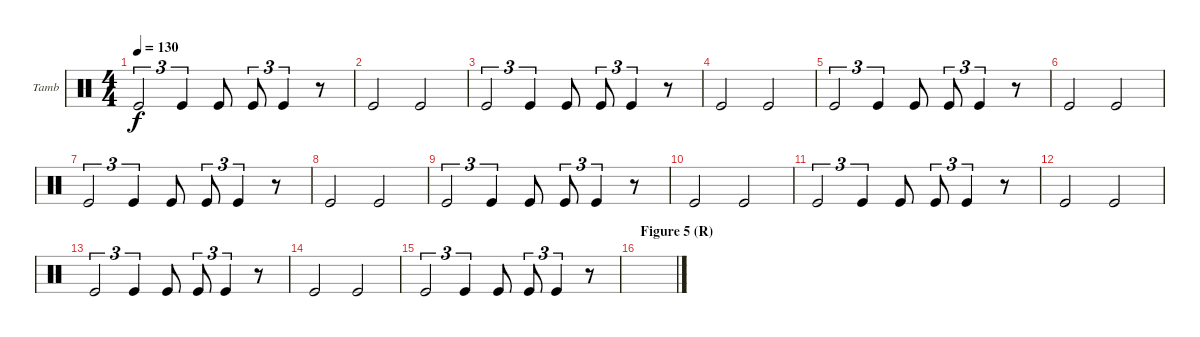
\defaultSystemsLayout 4
\bracketExtendMode groupsimilarinstruments
\firstSystemTrackNameOrientation horizontal
\otherSystemsTrackNameOrientation horizontal
\track ("Tambourine" "Tamb") {instrument percussion}
\staff {score}
\articulation defaults
\ts (4 4)
\tempo 130
\clef neutral
\scale
0.333333
\ks aminor "Kick (hit)".2{tu (3 2) dy f} "Kick (hit)".4{tu (3 2)} "Kick (hit)".8 "Kick (hit)".8{tu (3 2)} "Kick (hit)".4{tu (3 2)}
r.8 |
\scale
0.333333 "Kick (hit)".2 "Kick (hit)".2 |
\scale
0.333333 "Kick (hit)".2{tu (3 2)} "Kick (hit)".4{tu (3 2)} "Kick (hit)".8 "Kick (hit)".8{tu (3 2)} "Kick (hit)".4{tu (3 2)} r.8 |
\scale
0.333333 "Kick (hit)".2 "Kick (hit)".2 |
\scale
0.333333 "Kick (hit)".2{tu (3 2)} "Kick (hit)".4{tu (3 2)} "Kick (hit)".8 "Kick (hit)".8{tu (3 2)} "Kick (hit)".4{tu (3 2)} r.8 |
\scale
0.333333 "Kick (hit)".2 "Kick (hit)".2 |
\scale
0.333333 "Kick (hit)".2{tu (3 2)} "Kick (hit)".4{tu (3 2)} "Kick (hit)".8 "Kick (hit)".8{tu (3 2)} "Kick (hit)".4{tu (3 2)} r.8 |
\scale
0.333333 "Kick (hit)".2 "Kick (hit)".2 |
\scale
0.333333 "Kick (hit)".2{tu (3 2)} "Kick (hit)".4{tu (3 2)} "Kick (hit)".8 "Kick (hit)".8{tu (3 2)} "Kick (hit)".4{tu (3 2)} r.8 |
\scale
0.333333 "Kick (hit)".2 "Kick (hit)".2 |
\scale
0.333333 "Kick (hit)".2{tu (3 2)} "Kick (hit)".4{tu (3 2)} "Kick (hit)".8 "Kick (hit)".8{tu (3 2)} "Kick (hit)".4{tu (3 2)} r.8 |
\scale
0.333333 "Kick (hit)".2 "Kick (hit)".2 |
\scale
0.333333 "Kick (hit)".2{tu (3 2)} "Kick (hit)".4{tu (3 2)} "Kick (hit)".8 "Kick (hit)".8{tu (3 2)} "Kick (hit)".4{tu (3 2)} r.8 |
\scale
0.333333 "Kick (hit)".2 "Kick (hit)".2 |
\scale
0.333333 "Kick (hit)".2{tu (3 2)} "Kick (hit)".4{tu (3 2)} "Kick (hit)".8 "Kick (hit)".8{tu (3 2)} "Kick (hit)".4{tu (3 2)} r.8 |
\section ("" "Figure 5 (R)")
\scale
0.333333
